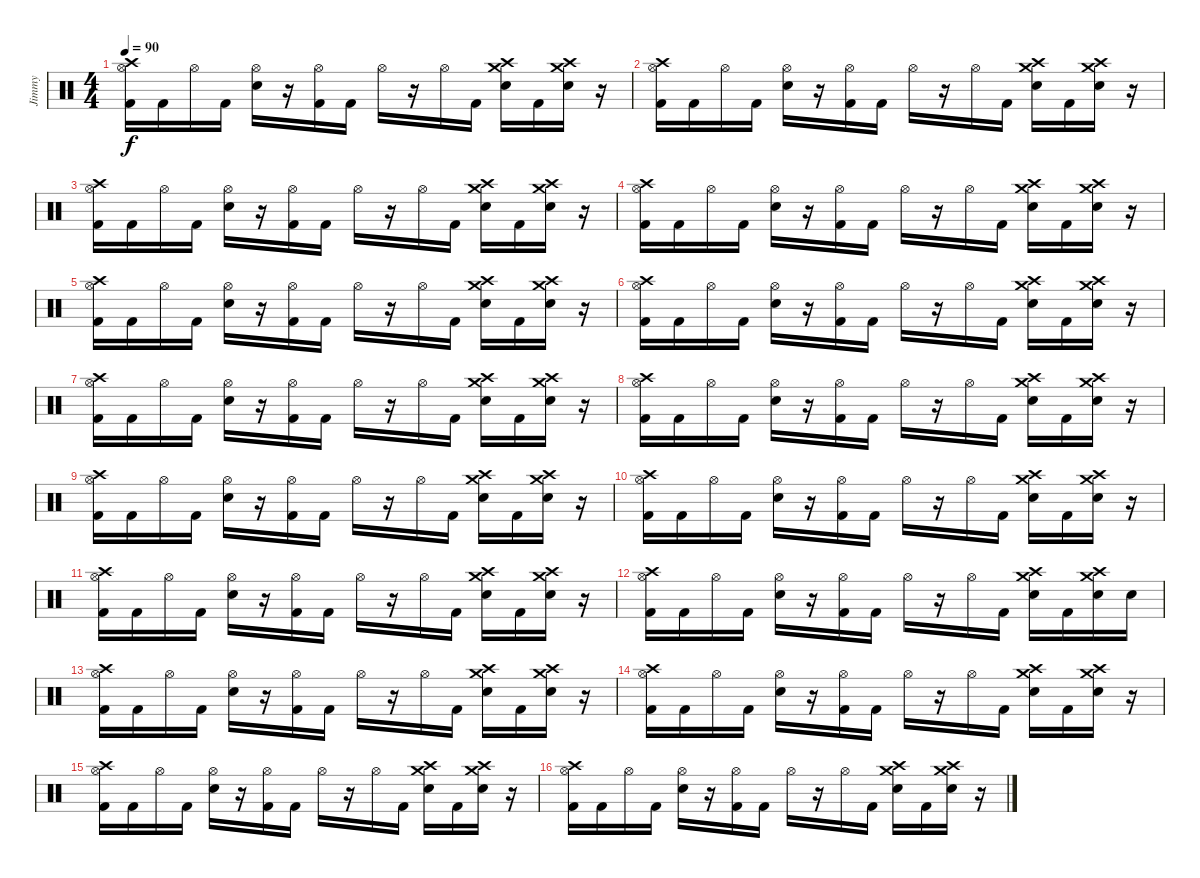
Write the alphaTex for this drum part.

\track ("Jimmy" "Jimmy") {instrument percussion}
\staff {score}
\articulation defaults
\ts (4 4)
\tempo 90
\clef neutral
\ks c
("Kick (hit) 2" "Hi-Hat (open)" "Crash high (hit)").16{dy f} "Kick (hit) 2".16 "Hi-Hat (open)".16 "Kick (hit) 2".16 ("Electric Snare (hit)" "Hi-Hat (open)").16 r.16 ("Kick (hit) 2" "Hi-Hat (open)").16 "Kick (hit) 2".16 "Hi-Hat (open)".16 r.16 "Hi-Hat (open)".16 "Kick (hit) 2".16 ("Electric Snare (hit)" "Crash high (hit)" "Crash medium (hit)").16 "Kick (hit) 2".16 ("Electric Snare (hit)" "Crash high (hit)" "Crash medium (hit)").16 r.16 |
("Kick (hit) 2" "Hi-Hat (open)" "Crash high (hit)").16 "Kick (hit) 2".16 "Hi-Hat (open)".16 "Kick (hit) 2".16 ("Electric Snare (hit)" "Hi-Hat (open)").16 r.16 ("Kick (hit) 2" "Hi-Hat (open)").16 "Kick (hit) 2".16 "Hi-Hat (open)".16 r.16 "Hi-Hat (open)".16 "Kick (hit) 2".16 ("Electric Snare (hit)" "Crash high (hit)" "Crash medium (hit)").16 "Kick (hit) 2".16 ("Electric Snare (hit)" "Crash high (hit)" "Crash medium (hit)").16 r.16 |
("Kick (hit) 2" "Hi-Hat (open)" "Crash high (hit)").16 "Kick (hit) 2".16 "Hi-Hat (open)".16 "Kick (hit) 2".16 ("Electric Snare (hit)" "Hi-Hat (open)").16 r.16 ("Kick (hit) 2" "Hi-Hat (open)").16 "Kick (hit) 2".16 "Hi-Hat (open)".16 r.16 "Hi-Hat (open)".16 "Kick (hit) 2".16 ("Electric Snare (hit)" "Crash high (hit)" "Crash medium (hit)").16 "Kick (hit) 2".16 ("Electric Snare (hit)" "Crash high (hit)" "Crash medium (hit)").16 r.16 |
("Kick (hit) 2" "Hi-Hat (open)" "Crash high (hit)").16 "Kick (hit) 2".16 "Hi-Hat (open)".16 "Kick (hit) 2".16 ("Electric Snare (hit)" "Hi-Hat (open)").16 r.16 ("Kick (hit) 2" "Hi-Hat (open)").16 "Kick (hit) 2".16 "Hi-Hat (open)".16 r.16 "Hi-Hat (open)".16 "Kick (hit) 2".16 ("Electric Snare (hit)" "Crash high (hit)" "Crash medium (hit)").16 "Kick (hit) 2".16 ("Electric Snare (hit)" "Crash high (hit)" "Crash medium (hit)").16 r.16 |
("Kick (hit) 2" "Hi-Hat (open)" "Crash high (hit)").16 "Kick (hit) 2".16 "Hi-Hat (open)".16 "Kick (hit) 2".16 ("Electric Snare (hit)" "Hi-Hat (open)").16 r.16 ("Kick (hit) 2" "Hi-Hat (open)").16 "Kick (hit) 2".16 "Hi-Hat (open)".16 r.16 "Hi-Hat (open)".16 "Kick (hit) 2".16 ("Electric Snare (hit)" "Crash high (hit)" "Crash medium (hit)").16 "Kick (hit) 2".16 ("Electric Snare (hit)" "Crash high (hit)" "Crash medium (hit)").16 r.16 |
("Kick (hit) 2" "Hi-Hat (open)" "Crash high (hit)").16 "Kick (hit) 2".16 "Hi-Hat (open)".16 "Kick (hit) 2".16 ("Electric Snare (hit)" "Hi-Hat (open)").16 r.16 ("Kick (hit) 2" "Hi-Hat (open)").16 "Kick (hit) 2".16 "Hi-Hat (open)".16 r.16 "Hi-Hat (open)".16 "Kick (hit) 2".16 ("Electric Snare (hit)" "Crash high (hit)" "Crash medium (hit)").16 "Kick (hit) 2".16 ("Electric Snare (hit)" "Crash high (hit)" "Crash medium (hit)").16 r.16 |
("Kick (hit) 2" "Hi-Hat (open)" "Crash high (hit)").16 "Kick (hit) 2".16 "Hi-Hat (open)".16 "Kick (hit) 2".16 ("Electric Snare (hit)" "Hi-Hat (open)").16 r.16 ("Kick (hit) 2" "Hi-Hat (open)").16 "Kick (hit) 2".16 "Hi-Hat (open)".16 r.16 "Hi-Hat (open)".16 "Kick (hit) 2".16 ("Electric Snare (hit)" "Crash high (hit)" "Crash medium (hit)").16 "Kick (hit) 2".16 ("Electric Snare (hit)" "Crash high (hit)" "Crash medium (hit)").16 r.16 |
("Kick (hit) 2" "Hi-Hat (open)" "Crash high (hit)").16 "Kick (hit) 2".16 "Hi-Hat (open)".16 "Kick (hit) 2".16 ("Electric Snare (hit)" "Hi-Hat (open)").16 r.16 ("Kick (hit) 2" "Hi-Hat (open)").16 "Kick (hit) 2".16 "Hi-Hat (open)".16 r.16 "Hi-Hat (open)".16 "Kick (hit) 2".16 ("Electric Snare (hit)" "Crash high (hit)" "Crash medium (hit)").16 "Kick (hit) 2".16 ("Electric Snare (hit)" "Crash high (hit)" "Crash medium (hit)").16 r.16 |
("Kick (hit) 2" "Hi-Hat (open)" "Crash high (hit)").16 "Kick (hit) 2".16 "Hi-Hat (open)".16 "Kick (hit) 2".16 ("Electric Snare (hit)" "Hi-Hat (open)").16 r.16 ("Kick (hit) 2" "Hi-Hat (open)").16 "Kick (hit) 2".16 "Hi-Hat (open)".16 r.16 "Hi-Hat (open)".16 "Kick (hit) 2".16 ("Electric Snare (hit)" "Crash high (hit)" "Crash medium (hit)").16 "Kick (hit) 2".16 ("Electric Snare (hit)" "Crash high (hit)" "Crash medium (hit)").16 r.16 |
("Kick (hit) 2" "Hi-Hat (open)" "Crash high (hit)").16 "Kick (hit) 2".16 "Hi-Hat (open)".16 "Kick (hit) 2".16 ("Electric Snare (hit)" "Hi-Hat (open)").16 r.16 ("Kick (hit) 2" "Hi-Hat (open)").16 "Kick (hit) 2".16 "Hi-Hat (open)".16 r.16 "Hi-Hat (open)".16 "Kick (hit) 2".16 ("Electric Snare (hit)" "Crash high (hit)" "Crash medium (hit)").16 "Kick (hit) 2".16 ("Electric Snare (hit)" "Crash high (hit)" "Crash medium (hit)").16 r.16 |
("Kick (hit) 2" "Hi-Hat (open)" "Crash high (hit)").16 "Kick (hit) 2".16 "Hi-Hat (open)".16 "Kick (hit) 2".16 ("Electric Snare (hit)" "Hi-Hat (open)").16 r.16 ("Kick (hit) 2" "Hi-Hat (open)").16 "Kick (hit) 2".16 "Hi-Hat (open)".16 r.16 "Hi-Hat (open)".16 "Kick (hit) 2".16 ("Electric Snare (hit)" "Crash high (hit)" "Crash medium (hit)").16 "Kick (hit) 2".16 ("Electric Snare (hit)" "Crash high (hit)" "Crash medium (hit)").16 r.16 |
("Kick (hit) 2" "Hi-Hat (open)" "Crash high (hit)").16 "Kick (hit) 2".16 "Hi-Hat (open)".16 "Kick (hit) 2".16 ("Electric Snare (hit)" "Hi-Hat (open)").16 r.16 ("Kick (hit) 2" "Hi-Hat (open)").16 "Kick (hit) 2".16 "Hi-Hat (open)".16 r.16 "Hi-Hat (open)".16 "Kick (hit) 2".16 ("Electric Snare (hit)" "Crash high (hit)" "Crash medium (hit)").16 "Kick (hit) 2".16 ("Electric Snare (hit)" "Crash high (hit)" "Crash medium (hit)").16 "Electric Snare (hit)".16 |
("Kick (hit) 2" "Hi-Hat (open)" "Crash high (hit)").16 "Kick (hit) 2".16 "Hi-Hat (open)".16 "Kick (hit) 2".16 ("Electric Snare (hit)" "Hi-Hat (open)").16 r.16 ("Kick (hit) 2" "Hi-Hat (open)").16 "Kick (hit) 2".16 "Hi-Hat (open)".16 r.16 "Hi-Hat (open)".16 "Kick (hit) 2".16 ("Electric Snare (hit)" "Crash high (hit)" "Crash medium (hit)").16 "Kick (hit) 2".16 ("Electric Snare (hit)" "Crash high (hit)" "Crash medium (hit)").16 r.16 |
("Kick (hit) 2" "Hi-Hat (open)" "Crash high (hit)").16 "Kick (hit) 2".16 "Hi-Hat (open)".16 "Kick (hit) 2".16 ("Electric Snare (hit)" "Hi-Hat (open)").16 r.16 ("Kick (hit) 2" "Hi-Hat (open)").16 "Kick (hit) 2".16 "Hi-Hat (open)".16 r.16 "Hi-Hat (open)".16 "Kick (hit) 2".16 ("Electric Snare (hit)" "Crash high (hit)" "Crash medium (hit)").16 "Kick (hit) 2".16 ("Electric Snare (hit)" "Crash high (hit)" "Crash medium (hit)").16 r.16 |
("Kick (hit) 2" "Hi-Hat (open)" "Crash high (hit)").16 "Kick (hit) 2".16 "Hi-Hat (open)".16 "Kick (hit) 2".16 ("Electric Snare (hit)" "Hi-Hat (open)").16 r.16 ("Kick (hit) 2" "Hi-Hat (open)").16 "Kick (hit) 2".16 "Hi-Hat (open)".16 r.16 "Hi-Hat (open)".16 "Kick (hit) 2".16 ("Electric Snare (hit)" "Crash high (hit)" "Crash medium (hit)").16 "Kick (hit) 2".16 ("Electric Snare (hit)" "Crash high (hit)" "Crash medium (hit)").16 r.16 |
("Kick (hit) 2" "Hi-Hat (open)" "Crash high (hit)").16 "Kick (hit) 2".16 "Hi-Hat (open)".16 "Kick (hit) 2".16 ("Electric Snare (hit)" "Hi-Hat (open)").16 r.16 ("Kick (hit) 2" "Hi-Hat (open)").16 "Kick (hit) 2".16 "Hi-Hat (open)".16 r.16 "Hi-Hat (open)".16 "Kick (hit) 2".16 ("Electric Snare (hit)" "Crash high (hit)" "Crash medium (hit)").16 "Kick (hit) 2".16 ("Electric Snare (hit)" "Crash high (hit)" "Crash medium (hit)").16 r.16
